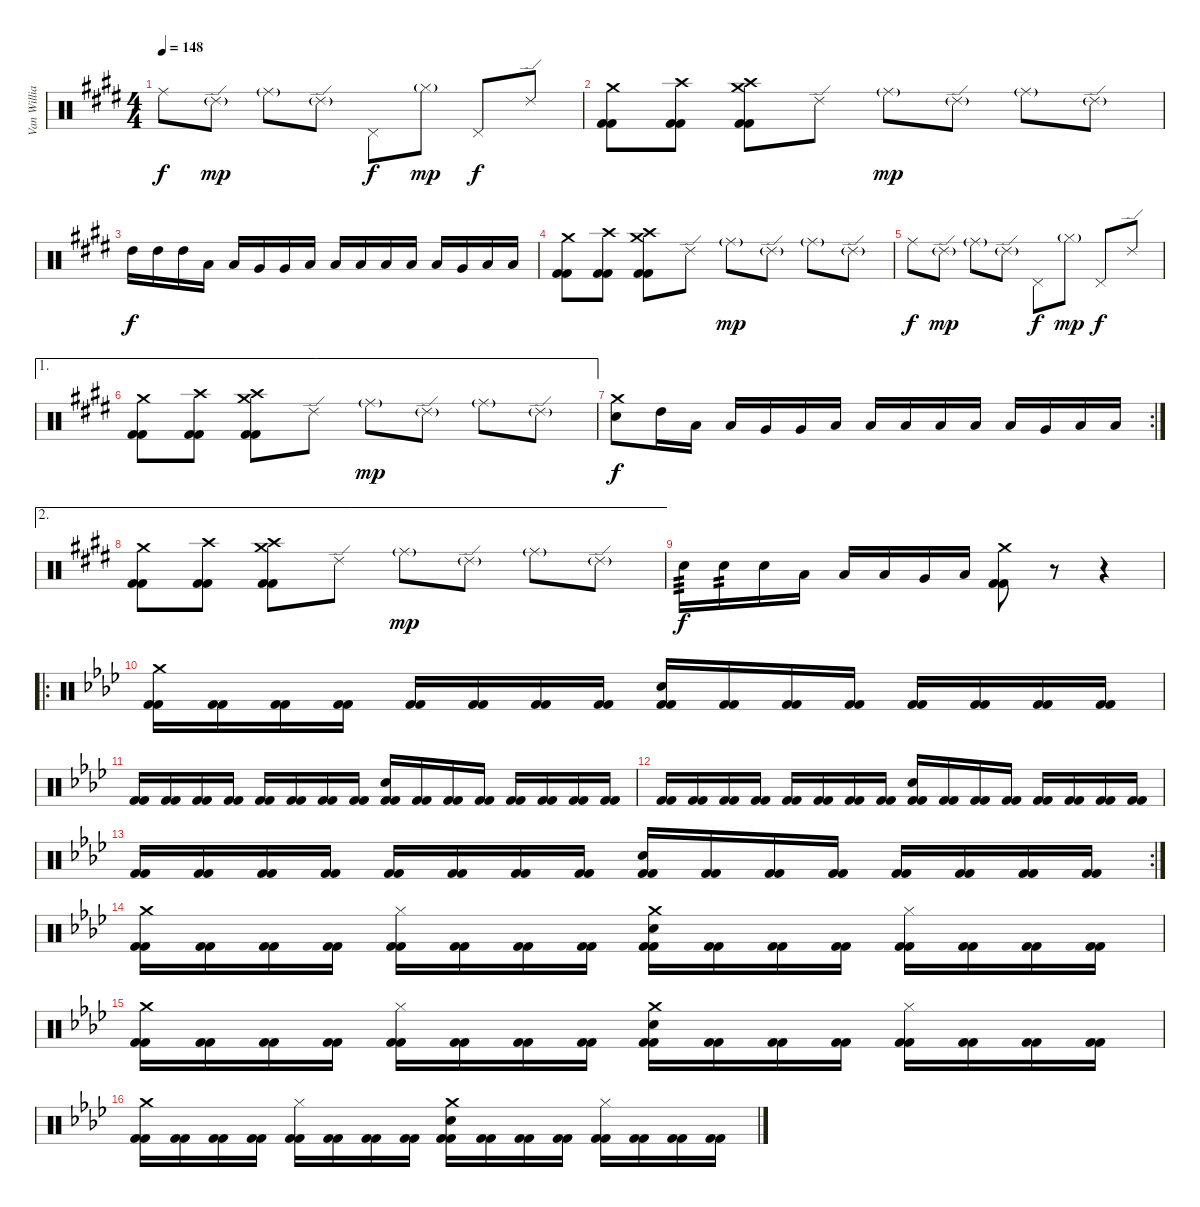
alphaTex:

\track ("Van Williams" "Van Willia") {instrument percussion}
\staff {score}
\articulation defaults
\ts (4 4)
\tempo 148
\clef neutral
\ks e "Ride (middle)".8{dy f} "Ride (edge) 2"{g}.8{dy mp} "Ride (middle)"{g}.8 "Ride (edge) 2"{g}.8 "Pedal Hi-Hat (hit)".8{dy f} "Hi-Hat (closed)"{g}.8{dy mp} "Pedal Hi-Hat (hit)".8{dy f} "Ride (edge) 2".8
|
("Crash medium (hit)" "Kick (hit) 2" "Kick (hit) 2").8 ("Crash high (hit)" "Kick (hit) 2" "Kick (hit) 2").8 ("Crash high (hit)" "Crash medium (hit)" "Kick (hit) 2" "Kick (hit) 2").8 "Ride (edge) 2".8 "Ride (middle)"{g}.8{dy mp} "Ride (edge) 2"{g}.8 "Ride (middle)"{g}.8 "Ride (edge) 2"{g}.8 |
"High Tom (hit)".16{dy f} "High Tom (hit)".16 "High Tom (hit)".16 "Low Tom (hit)".16 "Low Tom (hit)".16 "Very Low Tom (hit)".16 "Very Low Tom (hit)".16 "Low Floor Tom (hit)".16 "Low Tom (hit)".16 "Low Tom (hit)".16 "Low Tom (hit)".16 "Low Tom (hit)".16 "Low Tom (hit)".16 "Very Low Tom (hit)".16 "Low Floor Tom (hit)".16 "Low Floor Tom (hit)".16 |
("Crash medium (hit)" "Kick (hit) 2" "Kick (hit) 2").8 ("Crash high (hit)" "Kick (hit) 2" "Kick (hit) 2").8 ("Crash high (hit)" "Crash medium (hit)" "Kick (hit) 2" "Kick (hit) 2").8 "Ride (edge) 2".8 "Ride (middle)"{g}.8{dy mp} "Ride (edge) 2"{g}.8 "Ride (middle)"{g}.8 "Ride (edge) 2"{g}.8 |
"Ride (middle)".8{dy f} "Ride (edge) 2"{g}.8{dy mp} "Ride (middle)"{g}.8 "Ride (edge) 2"{g}.8 "Pedal Hi-Hat (hit)".8{dy f} "Hi-Hat (closed)"{g}.8{dy mp} "Pedal Hi-Hat (hit)".8{dy f} "Ride (edge) 2".8 |
\ae 1
("Crash medium (hit)" "Kick (hit) 2" "Kick (hit) 2").8 ("Crash high (hit)" "Kick (hit) 2" "Kick (hit) 2").8 ("Crash high (hit)" "Crash medium (hit)" "Kick (hit) 2" "Kick (hit) 2").8 "Ride (edge) 2".8 "Ride (middle)"{g}.8{dy mp} "Ride (edge) 2"{g}.8 "Ride (middle)"{g}.8 "Ride (edge) 2"{g}.8 |
\rc 2
("Crash medium (hit)" "Electric Snare (hit)").8{dy f} "High Tom (hit)".16 "Low Tom (hit)".16 "Low Tom (hit)".16 "Very Low Tom (hit)".16 "Very Low Tom (hit)".16 "Low Floor Tom (hit)".16 "Low Tom (hit)".16 "Low Tom (hit)".16 "Low Tom (hit)".16 "Low Tom (hit)".16 "Low Tom (hit)".16 "Very Low Tom (hit)".16 "Low Floor Tom (hit)".16 "Low Floor Tom (hit)".16 |
\ae 2
("Crash medium (hit)" "Kick (hit) 2" "Kick (hit) 2").8 ("Crash high (hit)" "Kick (hit) 2" "Kick (hit) 2").8 ("Crash high (hit)" "Crash medium (hit)" "Kick (hit) 2" "Kick (hit) 2").8 "Ride (edge) 2".8 "Ride (middle)"{g}.8{dy mp} "Ride (edge) 2"{g}.8 "Ride (middle)"{g}.8 "Ride (edge) 2"{g}.8 |
"Electric Snare (hit)".16{tp 3 dy f} "Electric Snare (hit)".16{tp 2} "Electric Snare (hit)".16 "Low Tom (hit)".16 "Low Tom (hit)".16 "Low Tom (hit)".16 "Very Low Tom (hit)".16 "Low Floor Tom (hit)".16 ("Crash medium (hit)" "Kick (hit) 2" "Kick (hit) 2").8 r.8{volume 0} r.4 |
\ro
\ks ab
("Crash medium (hit)" "Kick (hit) 2" "Kick (hit) 2").16{volume 16} ("Kick (hit) 2" "Kick (hit) 2").16 ("Kick (hit) 2" "Kick (hit) 2").16 ("Kick (hit) 2" "Kick (hit) 2").16 ("Kick (hit) 2" "Kick (hit) 2").16 ("Kick (hit) 2" "Kick (hit) 2").16 ("Kick (hit) 2" "Kick (hit) 2").16 ("Kick (hit) 2" "Kick (hit) 2").16 ("Electric Snare (hit)" "Kick (hit) 2" "Kick (hit) 2").16 ("Kick (hit) 2" "Kick (hit) 2").16 ("Kick (hit) 2" "Kick (hit) 2").16 ("Kick (hit) 2" "Kick (hit) 2").16 ("Kick (hit) 2" "Kick (hit) 2").16 ("Kick (hit) 2" "Kick (hit) 2").16 ("Kick (hit) 2" "Kick (hit) 2").16 ("Kick (hit) 2" "Kick (hit) 2").16 |
("Kick (hit) 2" "Kick (hit) 2").16 ("Kick (hit) 2" "Kick (hit) 2").16 ("Kick (hit) 2" "Kick (hit) 2").16 ("Kick (hit) 2" "Kick (hit) 2").16 ("Kick (hit) 2" "Kick (hit) 2").16 ("Kick (hit) 2" "Kick (hit) 2").16 ("Kick (hit) 2" "Kick (hit) 2").16 ("Kick (hit) 2" "Kick (hit) 2").16 ("Electric Snare (hit)" "Kick (hit) 2" "Kick (hit) 2").16 ("Kick (hit) 2" "Kick (hit) 2").16 ("Kick (hit) 2" "Kick (hit) 2").16 ("Kick (hit) 2" "Kick (hit) 2").16 ("Kick (hit) 2" "Kick (hit) 2").16 ("Kick (hit) 2" "Kick (hit) 2").16 ("Kick (hit) 2" "Kick (hit) 2").16 ("Kick (hit) 2" "Kick (hit) 2").16 |
("Kick (hit) 2" "Kick (hit) 2").16 ("Kick (hit) 2" "Kick (hit) 2").16 ("Kick (hit) 2" "Kick (hit) 2").16 ("Kick (hit) 2" "Kick (hit) 2").16 ("Kick (hit) 2" "Kick (hit) 2").16 ("Kick (hit) 2" "Kick (hit) 2").16 ("Kick (hit) 2" "Kick (hit) 2").16 ("Kick (hit) 2" "Kick (hit) 2").16 ("Electric Snare (hit)" "Kick (hit) 2" "Kick (hit) 2").16 ("Kick (hit) 2" "Kick (hit) 2").16 ("Kick (hit) 2" "Kick (hit) 2").16 ("Kick (hit) 2" "Kick (hit) 2").16 ("Kick (hit) 2" "Kick (hit) 2").16 ("Kick (hit) 2" "Kick (hit) 2").16 ("Kick (hit) 2" "Kick (hit) 2").16 ("Kick (hit) 2" "Kick (hit) 2").16 |
\rc 2
("Kick (hit) 2" "Kick (hit) 2").16 ("Kick (hit) 2" "Kick (hit) 2").16 ("Kick (hit) 2" "Kick (hit) 2").16 ("Kick (hit) 2" "Kick (hit) 2").16 ("Kick (hit) 2" "Kick (hit) 2").16 ("Kick (hit) 2" "Kick (hit) 2").16 ("Kick (hit) 2" "Kick (hit) 2").16 ("Kick (hit) 2" "Kick (hit) 2").16 ("Electric Snare (hit)" "Kick (hit) 2" "Kick (hit) 2").16 ("Kick (hit) 2" "Kick (hit) 2").16 ("Kick (hit) 2" "Kick (hit) 2").16 ("Kick (hit) 2" "Kick (hit) 2").16 ("Kick (hit) 2" "Kick (hit) 2").16 ("Kick (hit) 2" "Kick (hit) 2").16 ("Kick (hit) 2" "Kick (hit) 2").16 ("Kick (hit) 2" "Kick (hit) 2").16 |
("Crash medium (hit)" "Kick (hit) 2" "Kick (hit) 2").16 ("Kick (hit) 2" "Kick (hit) 2").16 ("Kick (hit) 2" "Kick (hit) 2").16 ("Kick (hit) 2" "Kick (hit) 2").16 ("Hi-Hat (closed)" "Kick (hit) 2" "Kick (hit) 2").16 ("Kick (hit) 2" "Kick (hit) 2").16 ("Kick (hit) 2" "Kick (hit) 2").16 ("Kick (hit) 2" "Kick (hit) 2").16 ("Crash medium (hit)" "Electric Snare (hit)" "Kick (hit) 2" "Kick (hit) 2").16 ("Kick (hit) 2" "Kick (hit) 2").16 ("Kick (hit) 2" "Kick (hit) 2").16 ("Kick (hit) 2" "Kick (hit) 2").16 ("Hi-Hat (closed)" "Kick (hit) 2" "Kick (hit) 2").16 ("Kick (hit) 2" "Kick (hit) 2").16 ("Kick (hit) 2" "Kick (hit) 2").16 ("Kick (hit) 2" "Kick (hit) 2").16 |
("Crash medium (hit)" "Kick (hit) 2" "Kick (hit) 2").16 ("Kick (hit) 2" "Kick (hit) 2").16 ("Kick (hit) 2" "Kick (hit) 2").16 ("Kick (hit) 2" "Kick (hit) 2").16 ("Hi-Hat (closed)" "Kick (hit) 2" "Kick (hit) 2").16 ("Kick (hit) 2" "Kick (hit) 2").16 ("Kick (hit) 2" "Kick (hit) 2").16 ("Kick (hit) 2" "Kick (hit) 2").16 ("Crash medium (hit)" "Electric Snare (hit)" "Kick (hit) 2" "Kick (hit) 2").16 ("Kick (hit) 2" "Kick (hit) 2").16 ("Kick (hit) 2" "Kick (hit) 2").16 ("Kick (hit) 2" "Kick (hit) 2").16 ("Hi-Hat (closed)" "Kick (hit) 2" "Kick (hit) 2").16 ("Kick (hit) 2" "Kick (hit) 2").16 ("Kick (hit) 2" "Kick (hit) 2").16 ("Kick (hit) 2" "Kick (hit) 2").16 |
("Crash medium (hit)" "Kick (hit) 2" "Kick (hit) 2").16 ("Kick (hit) 2" "Kick (hit) 2").16 ("Kick (hit) 2" "Kick (hit) 2").16 ("Kick (hit) 2" "Kick (hit) 2").16 ("Hi-Hat (closed)" "Kick (hit) 2" "Kick (hit) 2").16 ("Kick (hit) 2" "Kick (hit) 2").16 ("Kick (hit) 2" "Kick (hit) 2").16 ("Kick (hit) 2" "Kick (hit) 2").16 ("Crash medium (hit)" "Electric Snare (hit)" "Kick (hit) 2" "Kick (hit) 2").16 ("Kick (hit) 2" "Kick (hit) 2").16 ("Kick (hit) 2" "Kick (hit) 2").16 ("Kick (hit) 2" "Kick (hit) 2").16 ("Hi-Hat (closed)" "Kick (hit) 2" "Kick (hit) 2").16 ("Kick (hit) 2" "Kick (hit) 2").16 ("Kick (hit) 2" "Kick (hit) 2").16 ("Kick (hit) 2" "Kick (hit) 2").16
